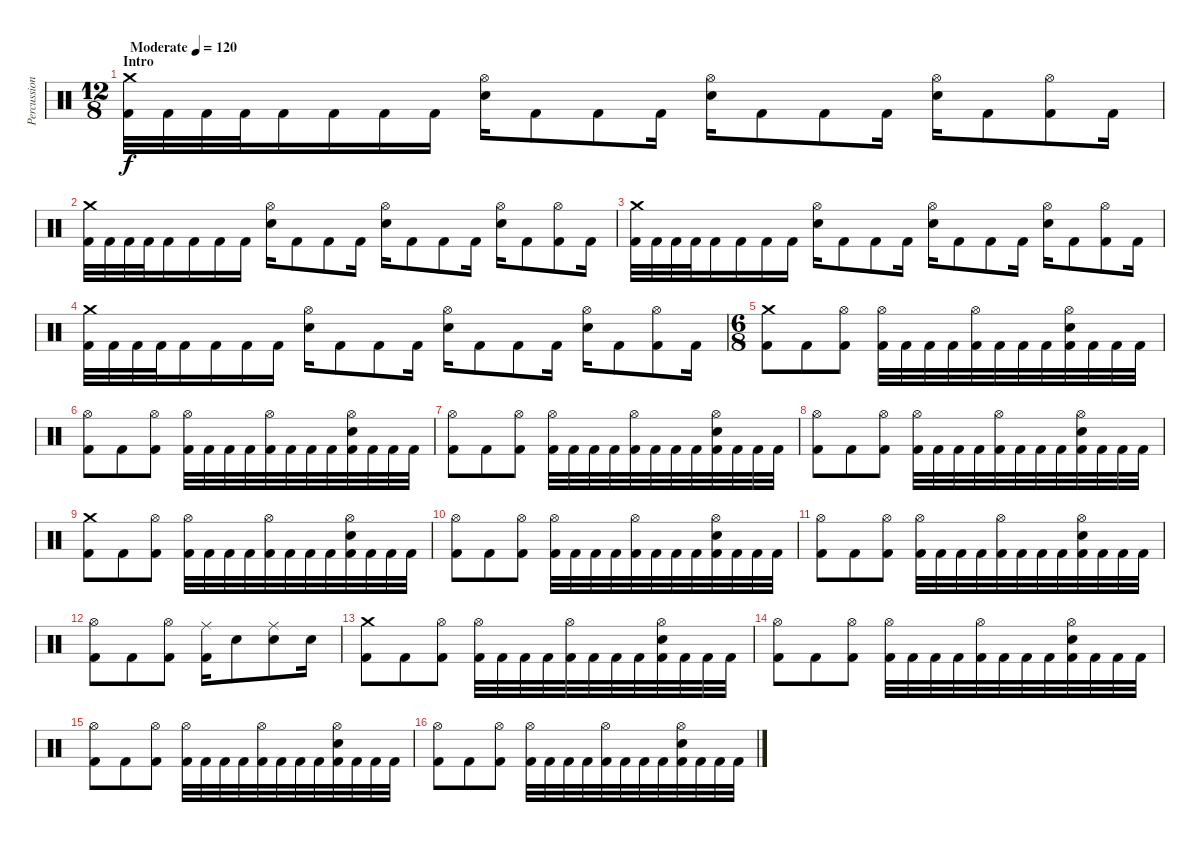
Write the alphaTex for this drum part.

\track ("Percussion" "Percussion") {instrument percussion}
\staff {score}
\articulation defaults
\ts (12 8)
\section ("" "Intro")
\tempo (120 "Moderate")
\clef neutral
\ks c
("Crash medium (hit)" "Kick (hit) 2").32{dy f} "Kick (hit) 2".32 "Kick (hit) 2".32 "Kick (hit) 2".32 "Kick (hit) 2".16 "Kick (hit) 2".16 "Kick (hit) 2".16 "Kick (hit) 2".16 ("Hi-Hat (open)" "Electric Snare (hit)").16 "Kick (hit) 2".8 "Kick (hit) 2".8 "Kick (hit) 2".16 ("Hi-Hat (open)" "Electric Snare (hit)").16 "Kick (hit) 2".8 "Kick (hit) 2".8 "Kick (hit) 2".16 ("Hi-Hat (open)" "Electric Snare (hit)").16 "Kick (hit) 2".8 ("Hi-Hat (open)" "Kick (hit) 2").8 "Kick (hit) 2".16 |
("Crash medium (hit)" "Kick (hit) 2").32 "Kick (hit) 2".32 "Kick (hit) 2".32 "Kick (hit) 2".32 "Kick (hit) 2".16 "Kick (hit) 2".16 "Kick (hit) 2".16 "Kick (hit) 2".16 ("Hi-Hat (open)" "Electric Snare (hit)").16 "Kick (hit) 2".8 "Kick (hit) 2".8 "Kick (hit) 2".16 ("Hi-Hat (open)" "Electric Snare (hit)").16 "Kick (hit) 2".8 "Kick (hit) 2".8 "Kick (hit) 2".16 ("Hi-Hat (open)" "Electric Snare (hit)").16 "Kick (hit) 2".8 ("Hi-Hat (open)" "Kick (hit) 2").8 "Kick (hit) 2".16 |
("Crash medium (hit)" "Kick (hit) 2").32 "Kick (hit) 2".32 "Kick (hit) 2".32 "Kick (hit) 2".32 "Kick (hit) 2".16 "Kick (hit) 2".16 "Kick (hit) 2".16 "Kick (hit) 2".16 ("Hi-Hat (open)" "Electric Snare (hit)").16 "Kick (hit) 2".8 "Kick (hit) 2".8 "Kick (hit) 2".16 ("Hi-Hat (open)" "Electric Snare (hit)").16 "Kick (hit) 2".8 "Kick (hit) 2".8 "Kick (hit) 2".16 ("Hi-Hat (open)" "Electric Snare (hit)").16 "Kick (hit) 2".8 ("Hi-Hat (open)" "Kick (hit) 2").8 "Kick (hit) 2".16 |
("Crash medium (hit)" "Kick (hit) 2").32 "Kick (hit) 2".32 "Kick (hit) 2".32 "Kick (hit) 2".32 "Kick (hit) 2".16 "Kick (hit) 2".16 "Kick (hit) 2".16 "Kick (hit) 2".16 ("Hi-Hat (open)" "Electric Snare (hit)").16 "Kick (hit) 2".8 "Kick (hit) 2".8 "Kick (hit) 2".16 ("Hi-Hat (open)" "Electric Snare (hit)").16 "Kick (hit) 2".8 "Kick (hit) 2".8 "Kick (hit) 2".16 ("Hi-Hat (open)" "Electric Snare (hit)").16 "Kick (hit) 2".8 ("Hi-Hat (open)" "Kick (hit) 2").8 "Kick (hit) 2".16 |
\ts (6 8)
("Crash medium (hit)" "Kick (hit) 2").8 "Kick (hit) 2".8 ("Hi-Hat (open)" "Kick (hit) 2").8 ("Hi-Hat (open)" "Kick (hit) 2").32 "Kick (hit) 2".32 "Kick (hit) 2".32 "Kick (hit) 2".32 ("Hi-Hat (open)" "Kick (hit) 2").32 "Kick (hit) 2".32 "Kick (hit) 2".32 "Kick (hit) 2".32 ("Hi-Hat (open)" "Electric Snare (hit)" "Kick (hit) 2").32 "Kick (hit) 2".32 "Kick (hit) 2".32 "Kick (hit) 2".32 |
("Hi-Hat (open)" "Kick (hit) 2").8 "Kick (hit) 2".8 ("Hi-Hat (open)" "Kick (hit) 2").8 ("Hi-Hat (open)" "Kick (hit) 2").32 "Kick (hit) 2".32 "Kick (hit) 2".32 "Kick (hit) 2".32 ("Hi-Hat (open)" "Kick (hit) 2").32 "Kick (hit) 2".32 "Kick (hit) 2".32 "Kick (hit) 2".32 ("Hi-Hat (open)" "Electric Snare (hit)" "Kick (hit) 2").32 "Kick (hit) 2".32 "Kick (hit) 2".32 "Kick (hit) 2".32 |
("Hi-Hat (open)" "Kick (hit) 2").8 "Kick (hit) 2".8 ("Hi-Hat (open)" "Kick (hit) 2").8 ("Hi-Hat (open)" "Kick (hit) 2").32 "Kick (hit) 2".32 "Kick (hit) 2".32 "Kick (hit) 2".32 ("Hi-Hat (open)" "Kick (hit) 2").32 "Kick (hit) 2".32 "Kick (hit) 2".32 "Kick (hit) 2".32 ("Hi-Hat (open)" "Electric Snare (hit)" "Kick (hit) 2").32 "Kick (hit) 2".32 "Kick (hit) 2".32 "Kick (hit) 2".32 |
("Hi-Hat (open)" "Kick (hit) 2").8 "Kick (hit) 2".8 ("Hi-Hat (open)" "Kick (hit) 2").8 ("Hi-Hat (open)" "Kick (hit) 2").32 "Kick (hit) 2".32 "Kick (hit) 2".32 "Kick (hit) 2".32 ("Hi-Hat (open)" "Kick (hit) 2").32 "Kick (hit) 2".32 "Kick (hit) 2".32 "Kick (hit) 2".32 ("Hi-Hat (open)" "Electric Snare (hit)" "Kick (hit) 2").32 "Kick (hit) 2".32 "Kick (hit) 2".32 "Kick (hit) 2".32 |
("Crash medium (hit)" "Kick (hit) 2").8 "Kick (hit) 2".8 ("Hi-Hat (open)" "Kick (hit) 2").8 ("Hi-Hat (open)" "Kick (hit) 2").32 "Kick (hit) 2".32 "Kick (hit) 2".32 "Kick (hit) 2".32 ("Hi-Hat (open)" "Kick (hit) 2").32 "Kick (hit) 2".32 "Kick (hit) 2".32 "Kick (hit) 2".32 ("Hi-Hat (open)" "Electric Snare (hit)" "Kick (hit) 2").32 "Kick (hit) 2".32 "Kick (hit) 2".32 "Kick (hit) 2".32 |
("Hi-Hat (open)" "Kick (hit) 2").8 "Kick (hit) 2".8 ("Hi-Hat (open)" "Kick (hit) 2").8 ("Hi-Hat (open)" "Kick (hit) 2").32 "Kick (hit) 2".32 "Kick (hit) 2".32 "Kick (hit) 2".32 ("Hi-Hat (open)" "Kick (hit) 2").32 "Kick (hit) 2".32 "Kick (hit) 2".32 "Kick (hit) 2".32 ("Hi-Hat (open)" "Electric Snare (hit)" "Kick (hit) 2").32 "Kick (hit) 2".32 "Kick (hit) 2".32 "Kick (hit) 2".32 |
("Hi-Hat (open)" "Kick (hit) 2").8 "Kick (hit) 2".8 ("Hi-Hat (open)" "Kick (hit) 2").8 ("Hi-Hat (open)" "Kick (hit) 2").32 "Kick (hit) 2".32 "Kick (hit) 2".32 "Kick (hit) 2".32 ("Hi-Hat (open)" "Kick (hit) 2").32 "Kick (hit) 2".32 "Kick (hit) 2".32 "Kick (hit) 2".32 ("Hi-Hat (open)" "Electric Snare (hit)" "Kick (hit) 2").32 "Kick (hit) 2".32 "Kick (hit) 2".32 "Kick (hit) 2".32 |
("Hi-Hat (open)" "Kick (hit) 2").8 "Kick (hit) 2".8 ("Hi-Hat (open)" "Kick (hit) 2").8 ("Ride (middle)" "Kick (hit) 2").16 "Electric Snare (hit)".8 ("Ride (middle)" "Electric Snare (hit)").8 "Electric Snare (hit)".16 |
("Crash medium (hit)" "Kick (hit) 2").8 "Kick (hit) 2".8 ("Hi-Hat (open)" "Kick (hit) 2").8 ("Hi-Hat (open)" "Kick (hit) 2").32 "Kick (hit) 2".32 "Kick (hit) 2".32 "Kick (hit) 2".32 ("Hi-Hat (open)" "Kick (hit) 2").32 "Kick (hit) 2".32 "Kick (hit) 2".32 "Kick (hit) 2".32 ("Hi-Hat (open)" "Electric Snare (hit)" "Kick (hit) 2").32 "Kick (hit) 2".32 "Kick (hit) 2".32 "Kick (hit) 2".32 |
("Hi-Hat (open)" "Kick (hit) 2").8 "Kick (hit) 2".8 ("Hi-Hat (open)" "Kick (hit) 2").8 ("Hi-Hat (open)" "Kick (hit) 2").32 "Kick (hit) 2".32 "Kick (hit) 2".32 "Kick (hit) 2".32 ("Hi-Hat (open)" "Kick (hit) 2").32 "Kick (hit) 2".32 "Kick (hit) 2".32 "Kick (hit) 2".32 ("Hi-Hat (open)" "Electric Snare (hit)" "Kick (hit) 2").32 "Kick (hit) 2".32 "Kick (hit) 2".32 "Kick (hit) 2".32 |
("Hi-Hat (open)" "Kick (hit) 2").8 "Kick (hit) 2".8 ("Hi-Hat (open)" "Kick (hit) 2").8 ("Hi-Hat (open)" "Kick (hit) 2").32 "Kick (hit) 2".32 "Kick (hit) 2".32 "Kick (hit) 2".32 ("Hi-Hat (open)" "Kick (hit) 2").32 "Kick (hit) 2".32 "Kick (hit) 2".32 "Kick (hit) 2".32 ("Hi-Hat (open)" "Electric Snare (hit)" "Kick (hit) 2").32 "Kick (hit) 2".32 "Kick (hit) 2".32 "Kick (hit) 2".32 |
("Hi-Hat (open)" "Kick (hit) 2").8 "Kick (hit) 2".8 ("Hi-Hat (open)" "Kick (hit) 2").8 ("Hi-Hat (open)" "Kick (hit) 2").32 "Kick (hit) 2".32 "Kick (hit) 2".32 "Kick (hit) 2".32 ("Hi-Hat (open)" "Kick (hit) 2").32 "Kick (hit) 2".32 "Kick (hit) 2".32 "Kick (hit) 2".32 ("Hi-Hat (open)" "Electric Snare (hit)" "Kick (hit) 2").32 "Kick (hit) 2".32 "Kick (hit) 2".32 "Kick (hit) 2".32
